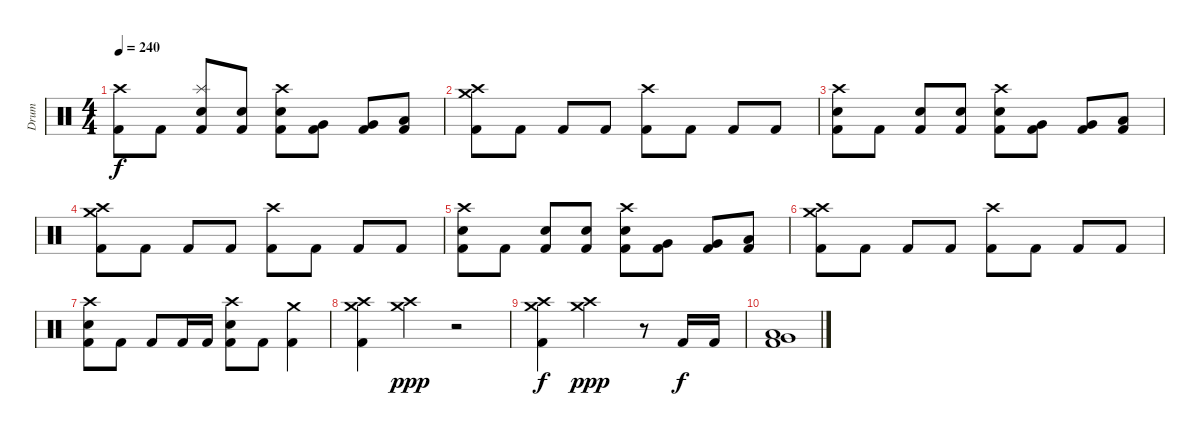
\track ("Drum" "Drum") {instrument percussion}
\staff {score}
\articulation defaults
\ts (4 4)
\tempo 240
\clef neutral
\ks c
("Crash high (hit)" "Kick (hit) 2").8{dy f} "Kick (hit) 2".8 ("Splash (hit)" "Electric Snare (hit)" "Kick (hit) 2").8 ("Electric Snare (hit)" "Kick (hit) 2").8 ("Crash high (hit)" "Electric Snare (hit)" "Kick (hit) 2").8 ("Very Low Tom (hit)" "Kick (hit) 2").8 ("Very Low Tom (hit)" "Kick (hit) 2").8 ("Low Tom (hit)" "Kick (hit) 2").8 |
("Crash medium (hit)" "Crash high (hit)" "Kick (hit) 2").8 "Kick (hit) 2".8 "Kick (hit) 2".8 "Kick (hit) 2".8 ("Crash high (hit)" "Kick (hit) 2").8 "Kick (hit) 2".8 "Kick (hit) 2".8 "Kick (hit) 2".8 |
("Crash high (hit)" "Electric Snare (hit)" "Kick (hit) 2").8 "Kick (hit) 2".8 ("Electric Snare (hit)" "Kick (hit) 2").8 ("Electric Snare (hit)" "Kick (hit) 2").8 ("Crash high (hit)" "Electric Snare (hit)" "Kick (hit) 2").8 ("Very Low Tom (hit)" "Kick (hit) 2").8 ("Very Low Tom (hit)" "Kick (hit) 2").8 ("Low Tom (hit)" "Kick (hit) 2").8 |
("Crash medium (hit)" "Crash high (hit)" "Kick (hit) 2").8 "Kick (hit) 2".8 "Kick (hit) 2".8 "Kick (hit) 2".8 ("Crash high (hit)" "Kick (hit) 2").8 "Kick (hit) 2".8 "Kick (hit) 2".8 "Kick (hit) 2".8 |
("Crash high (hit)" "Electric Snare (hit)" "Kick (hit) 2").8 "Kick (hit) 2".8 ("Electric Snare (hit)" "Kick (hit) 2").8 ("Electric Snare (hit)" "Kick (hit) 2").8 ("Crash high (hit)" "Electric Snare (hit)" "Kick (hit) 2").8 ("Very Low Tom (hit)" "Kick (hit) 2").8 ("Very Low Tom (hit)" "Kick (hit) 2").8 ("Low Tom (hit)" "Kick (hit) 2").8 |
("Crash medium (hit)" "Crash high (hit)" "Kick (hit) 2").8 "Kick (hit) 2".8 "Kick (hit) 2".8 "Kick (hit) 2".8 ("Crash high (hit)" "Kick (hit) 2").8 "Kick (hit) 2".8 "Kick (hit) 2".8 "Kick (hit) 2".8 |
("Crash high (hit)" "Electric Snare (hit)" "Kick (hit) 2").8 "Kick (hit) 2".8 "Kick (hit) 2".8 "Kick (hit) 2".16 "Kick (hit) 2".16 ("Crash high (hit)" "Electric Snare (hit)" "Kick (hit) 2").8 "Kick (hit) 2".8 ("Crash medium (hit)" "Kick (hit) 2").4 |
("Crash medium (hit)" "Crash high (hit)" "Kick (hit) 2").4 ("Crash medium (hit)" "Crash high (hit)").4{dy ppp} r.2 |
("Crash medium (hit)" "Crash high (hit)" "Kick (hit) 2").4{dy f} ("Crash medium (hit)" "Crash high (hit)").2{dy ppp} r.8 "Kick (hit) 2".16{dy f} "Kick (hit) 2".16 |
("Low Tom (hit)" "Very Low Tom (hit)" "Kick (hit) 2").1
